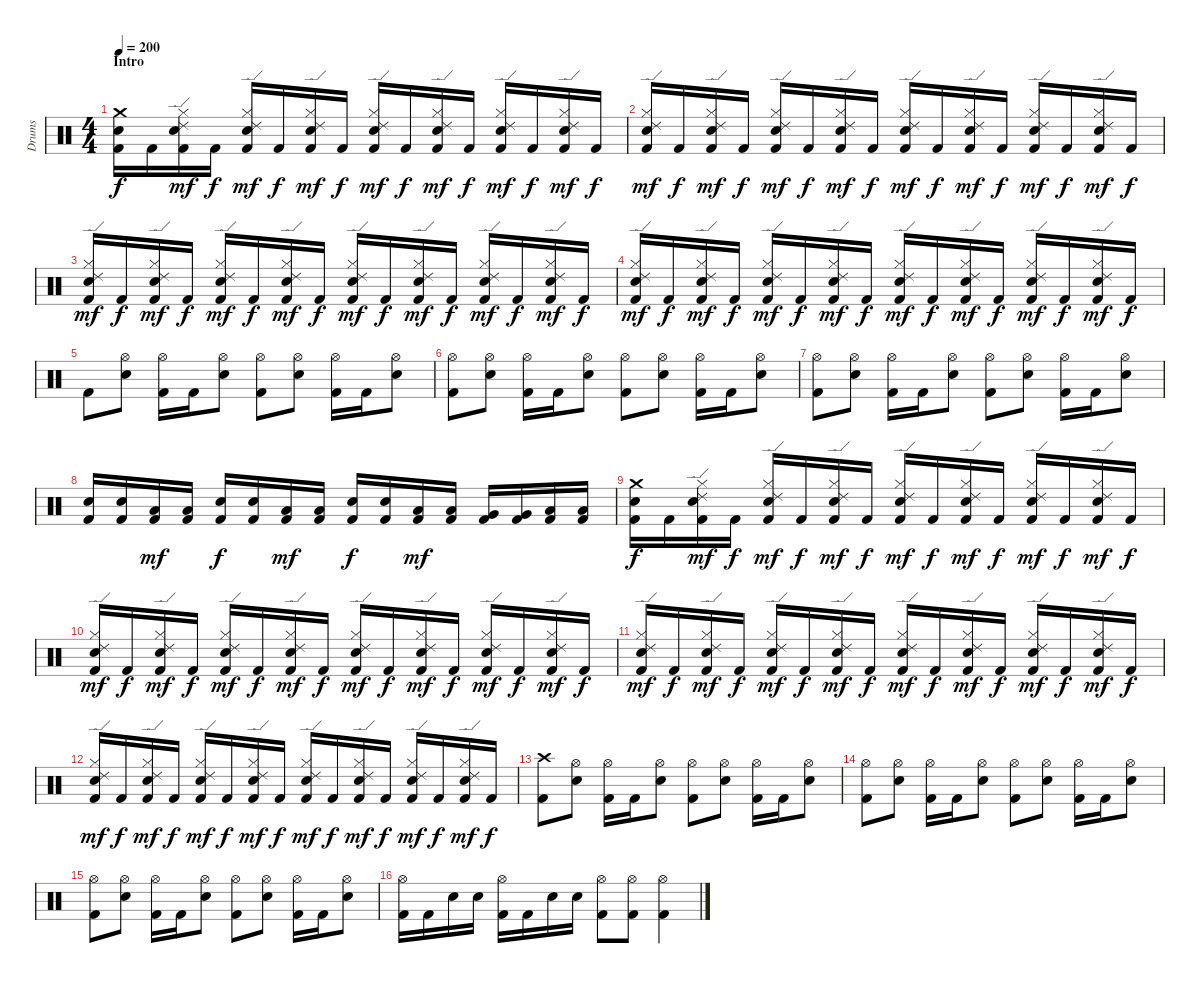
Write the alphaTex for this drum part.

\track ("Drums" "Drums") {instrument percussion}
\staff {score}
\articulation defaults
\ts (4 4)
\section ("" "Intro")
\tempo 200
\clef neutral
\ks c
("Crash medium (hit)" "Snare (hit) 2" "Kick (hit) 2").16{dy f} "Kick (hit) 2".16 ("Hi-Hat (closed)" "Ride (edge) 2" "Snare (hit) 2" "Kick (hit) 2").16{dy mf} "Kick (hit) 2".16{dy f} ("Hi-Hat (closed)" "Ride (edge) 2" "Snare (hit) 2" "Kick (hit) 2").16{dy mf} "Kick (hit) 2".16{dy f} ("Hi-Hat (closed)" "Ride (edge) 2" "Snare (hit) 2" "Kick (hit) 2").16{dy mf} "Kick (hit) 2".16{dy f} ("Hi-Hat (closed)" "Ride (edge) 2" "Snare (hit) 2" "Kick (hit) 2").16{dy mf} "Kick (hit) 2".16{dy f} ("Hi-Hat (closed)" "Ride (edge) 2" "Snare (hit) 2" "Kick (hit) 2").16{dy mf} "Kick (hit) 2".16{dy f} ("Hi-Hat (closed)" "Ride (edge) 2" "Snare (hit) 2" "Kick (hit) 2").16{dy mf} "Kick (hit) 2".16{dy f} ("Hi-Hat (closed)" "Ride (edge) 2" "Snare (hit) 2" "Kick (hit) 2").16{dy mf} "Kick (hit) 2".16{dy f} |
("Hi-Hat (closed)" "Ride (edge) 2" "Snare (hit) 2" "Kick (hit) 2").16{dy mf} "Kick (hit) 2".16{dy f} ("Hi-Hat (closed)" "Ride (edge) 2" "Snare (hit) 2" "Kick (hit) 2").16{dy mf} "Kick (hit) 2".16{dy f} ("Hi-Hat (closed)" "Ride (edge) 2" "Snare (hit) 2" "Kick (hit) 2").16{dy mf} "Kick (hit) 2".16{dy f} ("Hi-Hat (closed)" "Ride (edge) 2" "Snare (hit) 2" "Kick (hit) 2").16{dy mf} "Kick (hit) 2".16{dy f} ("Hi-Hat (closed)" "Ride (edge) 2" "Snare (hit) 2" "Kick (hit) 2").16{dy mf} "Kick (hit) 2".16{dy f} ("Hi-Hat (closed)" "Ride (edge) 2" "Snare (hit) 2" "Kick (hit) 2").16{dy mf} "Kick (hit) 2".16{dy f} ("Hi-Hat (closed)" "Ride (edge) 2" "Snare (hit) 2" "Kick (hit) 2").16{dy mf} "Kick (hit) 2".16{dy f} ("Hi-Hat (closed)" "Ride (edge) 2" "Snare (hit) 2" "Kick (hit) 2").16{dy mf} "Kick (hit) 2".16{dy f} |
("Hi-Hat (closed)" "Ride (edge) 2" "Snare (hit) 2" "Kick (hit) 2").16{dy mf} "Kick (hit) 2".16{dy f} ("Hi-Hat (closed)" "Ride (edge) 2" "Snare (hit) 2" "Kick (hit) 2").16{dy mf} "Kick (hit) 2".16{dy f} ("Hi-Hat (closed)" "Ride (edge) 2" "Snare (hit) 2" "Kick (hit) 2").16{dy mf} "Kick (hit) 2".16{dy f} ("Hi-Hat (closed)" "Ride (edge) 2" "Snare (hit) 2" "Kick (hit) 2").16{dy mf} "Kick (hit) 2".16{dy f} ("Hi-Hat (closed)" "Ride (edge) 2" "Snare (hit) 2" "Kick (hit) 2").16{dy mf} "Kick (hit) 2".16{dy f} ("Hi-Hat (closed)" "Ride (edge) 2" "Snare (hit) 2" "Kick (hit) 2").16{dy mf} "Kick (hit) 2".16{dy f} ("Hi-Hat (closed)" "Ride (edge) 2" "Snare (hit) 2" "Kick (hit) 2").16{dy mf} "Kick (hit) 2".16{dy f} ("Hi-Hat (closed)" "Ride (edge) 2" "Snare (hit) 2" "Kick (hit) 2").16{dy mf} "Kick (hit) 2".16{dy f} |
("Hi-Hat (closed)" "Ride (edge) 2" "Snare (hit) 2" "Kick (hit) 2").16{dy mf} "Kick (hit) 2".16{dy f} ("Hi-Hat (closed)" "Ride (edge) 2" "Snare (hit) 2" "Kick (hit) 2").16{dy mf} "Kick (hit) 2".16{dy f} ("Hi-Hat (closed)" "Ride (edge) 2" "Snare (hit) 2" "Kick (hit) 2").16{dy mf} "Kick (hit) 2".16{dy f} ("Hi-Hat (closed)" "Ride (edge) 2" "Snare (hit) 2" "Kick (hit) 2").16{dy mf} "Kick (hit) 2".16{dy f} ("Hi-Hat (closed)" "Ride (edge) 2" "Snare (hit) 2" "Kick (hit) 2").16{dy mf} "Kick (hit) 2".16{dy f} ("Hi-Hat (closed)" "Ride (edge) 2" "Snare (hit) 2" "Kick (hit) 2").16{dy mf} "Kick (hit) 2".16{dy f} ("Hi-Hat (closed)" "Ride (edge) 2" "Snare (hit) 2" "Kick (hit) 2").16{dy mf} "Kick (hit) 2".16{dy f} ("Hi-Hat (closed)" "Ride (edge) 2" "Snare (hit) 2" "Kick (hit) 2").16{dy mf} "Kick (hit) 2".16{dy f} |
"Kick (hit) 2".8 ("Hi-Hat (open)" "Snare (hit) 2").8 ("Hi-Hat (open)" "Kick (hit) 2").16 "Kick (hit) 2".16 ("Hi-Hat (open)" "Snare (hit) 2").8 ("Hi-Hat (open)" "Kick (hit) 2").8 ("Hi-Hat (open)" "Snare (hit) 2").8 ("Hi-Hat (open)" "Kick (hit) 2").16 "Kick (hit) 2".16 ("Hi-Hat (open)" "Snare (hit) 2").8 |
("Hi-Hat (open)" "Kick (hit) 2").8 ("Hi-Hat (open)" "Snare (hit) 2").8 ("Hi-Hat (open)" "Kick (hit) 2").16 "Kick (hit) 2".16 ("Hi-Hat (open)" "Snare (hit) 2").8 ("Hi-Hat (open)" "Kick (hit) 2").8 ("Hi-Hat (open)" "Snare (hit) 2").8 ("Hi-Hat (open)" "Kick (hit) 2").16 "Kick (hit) 2".16 ("Hi-Hat (open)" "Snare (hit) 2").8 |
("Hi-Hat (open)" "Kick (hit) 2").8 ("Hi-Hat (open)" "Snare (hit) 2").8 ("Hi-Hat (open)" "Kick (hit) 2").16 "Kick (hit) 2".16 ("Hi-Hat (open)" "Snare (hit) 2").8 ("Hi-Hat (open)" "Kick (hit) 2").8 ("Hi-Hat (open)" "Snare (hit) 2").8 ("Hi-Hat (open)" "Kick (hit) 2").16 "Kick (hit) 2".16 ("Hi-Hat (open)" "Snare (hit) 2").8 |
("Snare (hit) 2" "Kick (hit) 2").16 ("Snare (hit) 2" "Kick (hit) 2").16 ("Low Floor Tom (hit)" "Kick (hit) 2").16{dy mf} ("Low Floor Tom (hit)" "Kick (hit) 2").16 ("Snare (hit) 2" "Kick (hit) 2").16{dy f} ("Snare (hit) 2" "Kick (hit) 2").16 ("Low Floor Tom (hit)" "Kick (hit) 2").16{dy mf} ("Low Floor Tom (hit)" "Kick (hit) 2").16 ("Snare (hit) 2" "Kick (hit) 2").16{dy f} ("Snare (hit) 2" "Kick (hit) 2").16 ("Low Tom (hit)" "Kick (hit) 2").16{dy mf} ("Low Tom (hit)" "Kick (hit) 2").16 ("Very Low Tom (hit)" "Kick (hit) 2").16 ("Very Low Tom (hit)" "Kick (hit) 2").16 ("Low Floor Tom (hit)" "Kick (hit) 2").16 ("Low Floor Tom (hit)" "Kick (hit) 2").16 |
("Crash medium (hit)" "Snare (hit) 2" "Kick (hit) 2").16{dy f} "Kick (hit) 2".16 ("Hi-Hat (closed)" "Ride (edge) 2" "Snare (hit) 2" "Kick (hit) 2").16{dy mf} "Kick (hit) 2".16{dy f} ("Hi-Hat (closed)" "Ride (edge) 2" "Snare (hit) 2" "Kick (hit) 2").16{dy mf} "Kick (hit) 2".16{dy f} ("Hi-Hat (closed)" "Ride (edge) 2" "Snare (hit) 2" "Kick (hit) 2").16{dy mf} "Kick (hit) 2".16{dy f} ("Hi-Hat (closed)" "Ride (edge) 2" "Snare (hit) 2" "Kick (hit) 2").16{dy mf} "Kick (hit) 2".16{dy f} ("Hi-Hat (closed)" "Ride (edge) 2" "Snare (hit) 2" "Kick (hit) 2").16{dy mf} "Kick (hit) 2".16{dy f} ("Hi-Hat (closed)" "Ride (edge) 2" "Snare (hit) 2" "Kick (hit) 2").16{dy mf} "Kick (hit) 2".16{dy f} ("Hi-Hat (closed)" "Ride (edge) 2" "Snare (hit) 2" "Kick (hit) 2").16{dy mf} "Kick (hit) 2".16{dy f} |
("Hi-Hat (closed)" "Ride (edge) 2" "Snare (hit) 2" "Kick (hit) 2").16{dy mf} "Kick (hit) 2".16{dy f} ("Hi-Hat (closed)" "Ride (edge) 2" "Snare (hit) 2" "Kick (hit) 2").16{dy mf} "Kick (hit) 2".16{dy f} ("Hi-Hat (closed)" "Ride (edge) 2" "Snare (hit) 2" "Kick (hit) 2").16{dy mf} "Kick (hit) 2".16{dy f} ("Hi-Hat (closed)" "Ride (edge) 2" "Snare (hit) 2" "Kick (hit) 2").16{dy mf} "Kick (hit) 2".16{dy f} ("Hi-Hat (closed)" "Ride (edge) 2" "Snare (hit) 2" "Kick (hit) 2").16{dy mf} "Kick (hit) 2".16{dy f} ("Hi-Hat (closed)" "Ride (edge) 2" "Snare (hit) 2" "Kick (hit) 2").16{dy mf} "Kick (hit) 2".16{dy f} ("Hi-Hat (closed)" "Ride (edge) 2" "Snare (hit) 2" "Kick (hit) 2").16{dy mf} "Kick (hit) 2".16{dy f} ("Hi-Hat (closed)" "Ride (edge) 2" "Snare (hit) 2" "Kick (hit) 2").16{dy mf} "Kick (hit) 2".16{dy f} |
("Hi-Hat (closed)" "Ride (edge) 2" "Snare (hit) 2" "Kick (hit) 2").16{dy mf} "Kick (hit) 2".16{dy f} ("Hi-Hat (closed)" "Ride (edge) 2" "Snare (hit) 2" "Kick (hit) 2").16{dy mf} "Kick (hit) 2".16{dy f} ("Hi-Hat (closed)" "Ride (edge) 2" "Snare (hit) 2" "Kick (hit) 2").16{dy mf} "Kick (hit) 2".16{dy f} ("Hi-Hat (closed)" "Ride (edge) 2" "Snare (hit) 2" "Kick (hit) 2").16{dy mf} "Kick (hit) 2".16{dy f} ("Hi-Hat (closed)" "Ride (edge) 2" "Snare (hit) 2" "Kick (hit) 2").16{dy mf} "Kick (hit) 2".16{dy f} ("Hi-Hat (closed)" "Ride (edge) 2" "Snare (hit) 2" "Kick (hit) 2").16{dy mf} "Kick (hit) 2".16{dy f} ("Hi-Hat (closed)" "Ride (edge) 2" "Snare (hit) 2" "Kick (hit) 2").16{dy mf} "Kick (hit) 2".16{dy f} ("Hi-Hat (closed)" "Ride (edge) 2" "Snare (hit) 2" "Kick (hit) 2").16{dy mf} "Kick (hit) 2".16{dy f} |
("Hi-Hat (closed)" "Ride (edge) 2" "Snare (hit) 2" "Kick (hit) 2").16{dy mf} "Kick (hit) 2".16{dy f} ("Hi-Hat (closed)" "Ride (edge) 2" "Snare (hit) 2" "Kick (hit) 2").16{dy mf} "Kick (hit) 2".16{dy f} ("Hi-Hat (closed)" "Ride (edge) 2" "Snare (hit) 2" "Kick (hit) 2").16{dy mf} "Kick (hit) 2".16{dy f} ("Hi-Hat (closed)" "Ride (edge) 2" "Snare (hit) 2" "Kick (hit) 2").16{dy mf} "Kick (hit) 2".16{dy f} ("Hi-Hat (closed)" "Ride (edge) 2" "Snare (hit) 2" "Kick (hit) 2").16{dy mf} "Kick (hit) 2".16{dy f} ("Hi-Hat (closed)" "Ride (edge) 2" "Snare (hit) 2" "Kick (hit) 2").16{dy mf} "Kick (hit) 2".16{dy f} ("Hi-Hat (closed)" "Ride (edge) 2" "Snare (hit) 2" "Kick (hit) 2").16{dy mf} "Kick (hit) 2".16{dy f} ("Hi-Hat (closed)" "Ride (edge) 2" "Snare (hit) 2" "Kick (hit) 2").16{dy mf} "Kick (hit) 2".16{dy f} |
("Crash high (hit)" "Kick (hit) 2").8 ("Hi-Hat (open)" "Snare (hit) 2").8 ("Hi-Hat (open)" "Kick (hit) 2").16 "Kick (hit) 2".16 ("Hi-Hat (open)" "Snare (hit) 2").8 ("Hi-Hat (open)" "Kick (hit) 2").8 ("Hi-Hat (open)" "Snare (hit) 2").8 ("Hi-Hat (open)" "Kick (hit) 2").16 "Kick (hit) 2".16 ("Hi-Hat (open)" "Snare (hit) 2").8 |
("Hi-Hat (open)" "Kick (hit) 2").8 ("Hi-Hat (open)" "Snare (hit) 2").8 ("Hi-Hat (open)" "Kick (hit) 2").16 "Kick (hit) 2".16 ("Hi-Hat (open)" "Snare (hit) 2").8 ("Hi-Hat (open)" "Kick (hit) 2").8 ("Hi-Hat (open)" "Snare (hit) 2").8 ("Hi-Hat (open)" "Kick (hit) 2").16 "Kick (hit) 2".16 ("Hi-Hat (open)" "Snare (hit) 2").8 |
("Hi-Hat (open)" "Kick (hit) 2").8 ("Hi-Hat (open)" "Snare (hit) 2").8 ("Hi-Hat (open)" "Kick (hit) 2").16 "Kick (hit) 2".16 ("Hi-Hat (open)" "Snare (hit) 2").8 ("Hi-Hat (open)" "Kick (hit) 2").8 ("Hi-Hat (open)" "Snare (hit) 2").8 ("Hi-Hat (open)" "Kick (hit) 2").16 "Kick (hit) 2".16 ("Hi-Hat (open)" "Snare (hit) 2").8 |
("Hi-Hat (open)" "Kick (hit) 2").16 "Kick (hit) 2".16 "Snare (hit) 2".16 "Snare (hit) 2".16 ("Hi-Hat (open)" "Kick (hit) 2").16 "Kick (hit) 2".16 "Snare (hit) 2".16 "Snare (hit) 2".16 ("Hi-Hat (open)" "Kick (hit) 2").8 ("Hi-Hat (open)" "Kick (hit) 2").8 ("Hi-Hat (open)" "Kick (hit) 2").4
